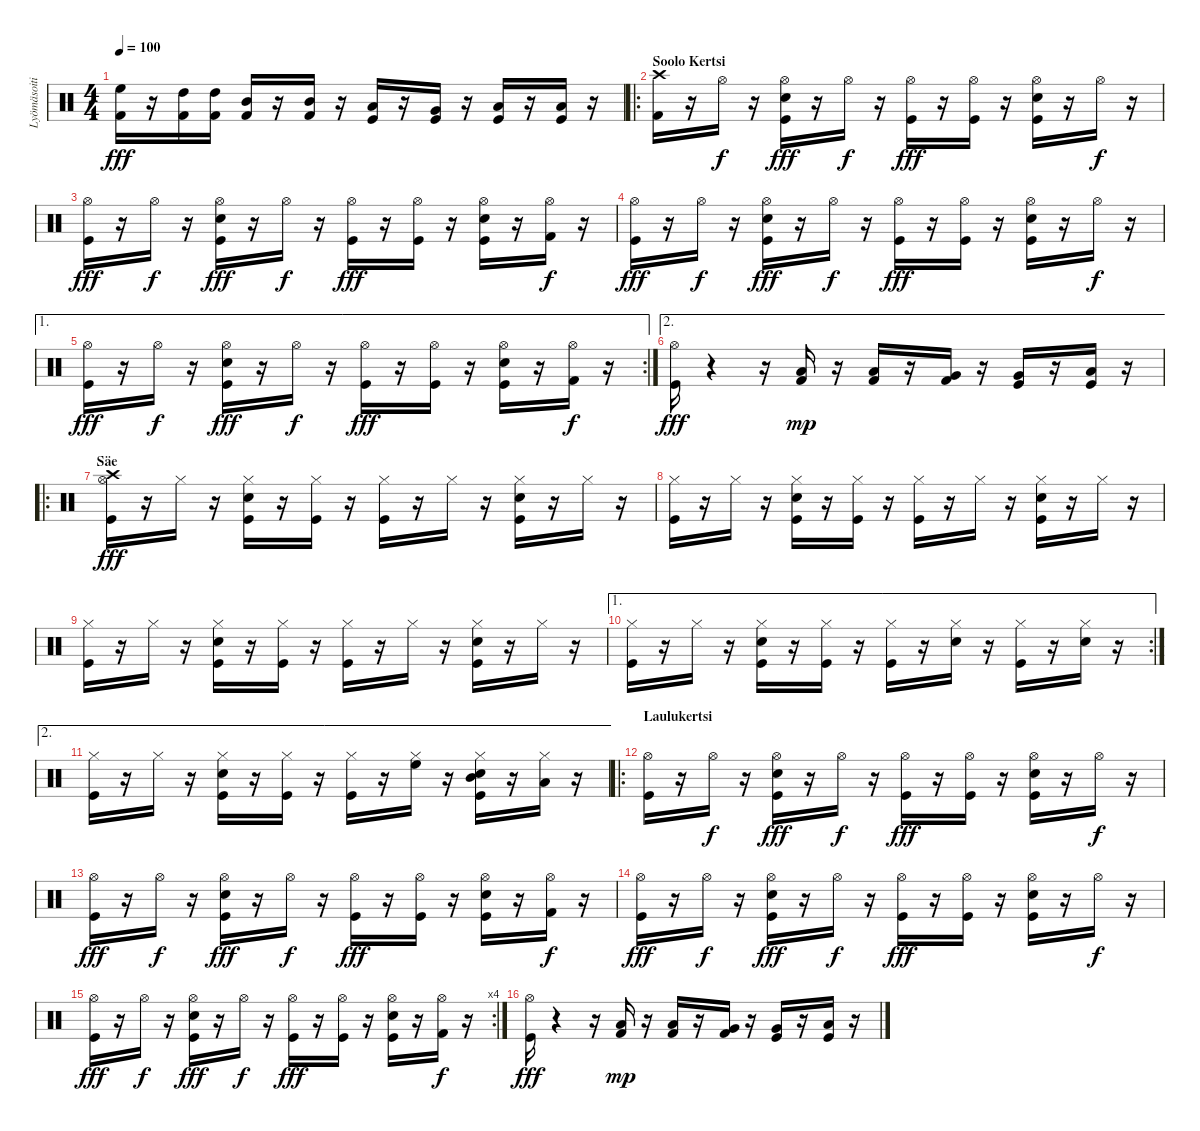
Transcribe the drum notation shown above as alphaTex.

\track ("Lyömäsoitin" "Lyömäsoiti") {instrument percussion}
\staff {score}
\articulation defaults
\ts (4 4)
\tempo 100
\tempo 150
\tempo 100
\clef neutral
\ks c
("Kick (hit) 2" "High Floor Tom (hit)").16{dy fff} r.16 ("Kick (hit) 2" "High Tom (hit)").16 ("Kick (hit) 2" "High Tom (hit)").16 ("Kick (hit) 2" "Mid Tom (hit)").16 r.16 ("Kick (hit) 2" "Mid Tom (hit)").16 r.16 ("Kick (hit)" "Low Tom (hit)").16 r.16 ("Kick (hit)" "Very Low Tom (hit)").16 r.16 ("Kick (hit)" "Low Floor Tom (hit)").16 r.16 ("Kick (hit)" "Low Floor Tom (hit)").16 r.16 |
\ro
\section ("" "Soolo Kertsi")
("Kick (hit) 2" "Crash high (hit)").16 r.16 "Hi-Hat (open)".16{dy f} r.16 ("Snare (hit) 2" "Kick (hit)" "Hi-Hat (open)").16{dy fff} r.16 "Hi-Hat (open)".16{dy f} r.16 ("Kick (hit)" "Hi-Hat (open)").16{dy fff} r.16 ("Kick (hit)" "Hi-Hat (open)").16 r.16 ("Kick (hit)" "Snare (hit) 2" "Hi-Hat (open)").16 r.16 "Hi-Hat (open)".16{dy f} r.16 |
("Kick (hit)" "Hi-Hat (open)").16{dy fff} r.16 "Hi-Hat (open)".16{dy f} r.16 ("Snare (hit) 2" "Kick (hit)" "Hi-Hat (open)").16{dy fff} r.16 "Hi-Hat (open)".16{dy f} r.16 ("Kick (hit)" "Hi-Hat (open)").16{dy fff} r.16 ("Kick (hit)" "Hi-Hat (open)").16 r.16 ("Kick (hit)" "Snare (hit) 2" "Hi-Hat (open)").16 r.16 ("Hi-Hat (open)" "Kick (hit) 2").16{dy f} r.16 |
("Kick (hit)" "Hi-Hat (open)").16{dy fff} r.16 "Hi-Hat (open)".16{dy f} r.16 ("Snare (hit) 2" "Kick (hit)" "Hi-Hat (open)").16{dy fff} r.16 "Hi-Hat (open)".16{dy f} r.16 ("Kick (hit)" "Hi-Hat (open)").16{dy fff} r.16 ("Kick (hit)" "Hi-Hat (open)").16 r.16 ("Kick (hit)" "Snare (hit) 2" "Hi-Hat (open)").16 r.16 "Hi-Hat (open)".16{dy f} r.16 |
\ae 1
\rc 2
("Kick (hit)" "Hi-Hat (open)").16{dy fff} r.16 "Hi-Hat (open)".16{dy f} r.16 ("Snare (hit) 2" "Kick (hit)" "Hi-Hat (open)").16{dy fff} r.16 "Hi-Hat (open)".16{dy f} r.16 ("Kick (hit)" "Hi-Hat (open)").16{dy fff} r.16 ("Kick (hit)" "Hi-Hat (open)").16 r.16 ("Kick (hit)" "Snare (hit) 2" "Hi-Hat (open)").16 r.16 ("Hi-Hat (open)" "Kick (hit) 2").16{dy f} r.16 |
\ae 2
("Kick (hit)" "Hi-Hat (open)").16{dy fff} r.4 r.16 ("Low Tom (hit)" "Kick (hit) 2").16{dy mp} r.16 ("Low Tom (hit)" "Kick (hit) 2").16 r.16 ("Very Low Tom (hit)" "Kick (hit) 2").16 r.16 ("Very Low Tom (hit)" "Kick (hit)").16 r.16 ("Low Floor Tom (hit)" "Kick (hit)").16 r.16 |
\ro
\section ("" "Säe ")
("Kick (hit)" "Hi-Hat (open)" "Crash high (hit)").16{dy fff} r.16 "Hi-Hat (closed)".16 r.16 ("Snare (hit) 2" "Kick (hit)" "Hi-Hat (closed)").16 r.16 ("Kick (hit)" "Hi-Hat (closed)").16 r.16 ("Kick (hit)" "Hi-Hat (closed)").16 r.16 "Hi-Hat (closed)".16 r.16 ("Snare (hit) 2" "Kick (hit)" "Hi-Hat (closed)").16 r.16 "Hi-Hat (closed)".16 r.16 |
("Kick (hit)" "Hi-Hat (closed)").16 r.16 "Hi-Hat (closed)".16 r.16 ("Snare (hit) 2" "Kick (hit)" "Hi-Hat (closed)").16 r.16 ("Kick (hit)" "Hi-Hat (closed)").16 r.16 ("Kick (hit)" "Hi-Hat (closed)").16 r.16 "Hi-Hat (closed)".16 r.16 ("Snare (hit) 2" "Kick (hit)" "Hi-Hat (closed)").16 r.16 "Hi-Hat (closed)".16 r.16 |
("Hi-Hat (closed)" "Kick (hit)").16 r.16 "Hi-Hat (closed)".16 r.16 ("Snare (hit) 2" "Kick (hit)" "Hi-Hat (closed)").16 r.16 ("Kick (hit)" "Hi-Hat (closed)").16 r.16 ("Kick (hit)" "Hi-Hat (closed)").16 r.16 "Hi-Hat (closed)".16 r.16 ("Snare (hit) 2" "Kick (hit)" "Hi-Hat (closed)").16 r.16 "Hi-Hat (closed)".16 r.16 |
\ae 1
\rc 2
("Hi-Hat (closed)" "Kick (hit)").16 r.16 "Hi-Hat (closed)".16 r.16 ("Snare (hit) 2" "Kick (hit)" "Hi-Hat (closed)").16 r.16 ("Kick (hit)" "Hi-Hat (closed)").16 r.16 ("Kick (hit)" "Hi-Hat (closed)").16 r.16 ("Hi-Hat (closed)" "Snare (hit) 2").16 r.16 ("Kick (hit)" "Hi-Hat (closed)").16 r.16 ("Hi-Hat (closed)" "Snare (hit) 2").16 r.16 |
\ae 2
("Hi-Hat (closed)" "Kick (hit)").16 r.16 "Hi-Hat (closed)".16 r.16 ("Snare (hit) 2" "Kick (hit)" "Hi-Hat (closed)").16 r.16 ("Kick (hit)" "Hi-Hat (closed)").16 r.16 ("Kick (hit)" "Hi-Hat (closed)").16 r.16 ("Hi-Hat (closed)" "High Floor Tom (hit)").16 r.16 ("Snare (hit) 2" "Kick (hit)" "Hi-Hat (closed)" "Mid Tom (hit)").16 r.16 ("Hi-Hat (closed)" "Low Tom (hit)").16 r.16 |
\ro
\section ("" "Laulukertsi")
("Kick (hit)" "Hi-Hat (open)").16 r.16 "Hi-Hat (open)".16{dy f} r.16 ("Snare (hit) 2" "Kick (hit)" "Hi-Hat (open)").16{dy fff} r.16 "Hi-Hat (open)".16{dy f} r.16 ("Kick (hit)" "Hi-Hat (open)").16{dy fff} r.16 ("Kick (hit)" "Hi-Hat (open)").16 r.16 ("Kick (hit)" "Snare (hit) 2" "Hi-Hat (open)").16 r.16 "Hi-Hat (open)".16{dy f} r.16 |
("Kick (hit)" "Hi-Hat (open)").16{dy fff} r.16 "Hi-Hat (open)".16{dy f} r.16 ("Snare (hit) 2" "Kick (hit)" "Hi-Hat (open)").16{dy fff} r.16 "Hi-Hat (open)".16{dy f} r.16 ("Kick (hit)" "Hi-Hat (open)").16{dy fff} r.16 ("Kick (hit)" "Hi-Hat (open)").16 r.16 ("Kick (hit)" "Snare (hit) 2" "Hi-Hat (open)").16 r.16 ("Hi-Hat (open)" "Kick (hit) 2").16{dy f} r.16 |
("Kick (hit)" "Hi-Hat (open)").16{dy fff} r.16 "Hi-Hat (open)".16{dy f} r.16 ("Snare (hit) 2" "Kick (hit)" "Hi-Hat (open)").16{dy fff} r.16 "Hi-Hat (open)".16{dy f} r.16 ("Kick (hit)" "Hi-Hat (open)").16{dy fff} r.16 ("Kick (hit)" "Hi-Hat (open)").16 r.16 ("Kick (hit)" "Snare (hit) 2" "Hi-Hat (open)").16 r.16 "Hi-Hat (open)".16{dy f} r.16 |
\rc 4
("Kick (hit)" "Hi-Hat (open)").16{dy fff} r.16 "Hi-Hat (open)".16{dy f} r.16 ("Snare (hit) 2" "Kick (hit)" "Hi-Hat (open)").16{dy fff} r.16 "Hi-Hat (open)".16{dy f} r.16 ("Kick (hit)" "Hi-Hat (open)").16{dy fff} r.16 ("Kick (hit)" "Hi-Hat (open)").16 r.16 ("Kick (hit)" "Snare (hit) 2" "Hi-Hat (open)").16 r.16 ("Hi-Hat (open)" "Kick (hit) 2").16{dy f} r.16 |
("Kick (hit)" "Hi-Hat (open)").16{dy fff} r.4 r.16 ("Low Tom (hit)" "Kick (hit) 2").16{dy mp} r.16 ("Low Tom (hit)" "Kick (hit) 2").16 r.16 ("Very Low Tom (hit)" "Kick (hit) 2").16 r.16 ("Very Low Tom (hit)" "Kick (hit)").16 r.16 ("Low Floor Tom (hit)" "Kick (hit)").16 r.16
